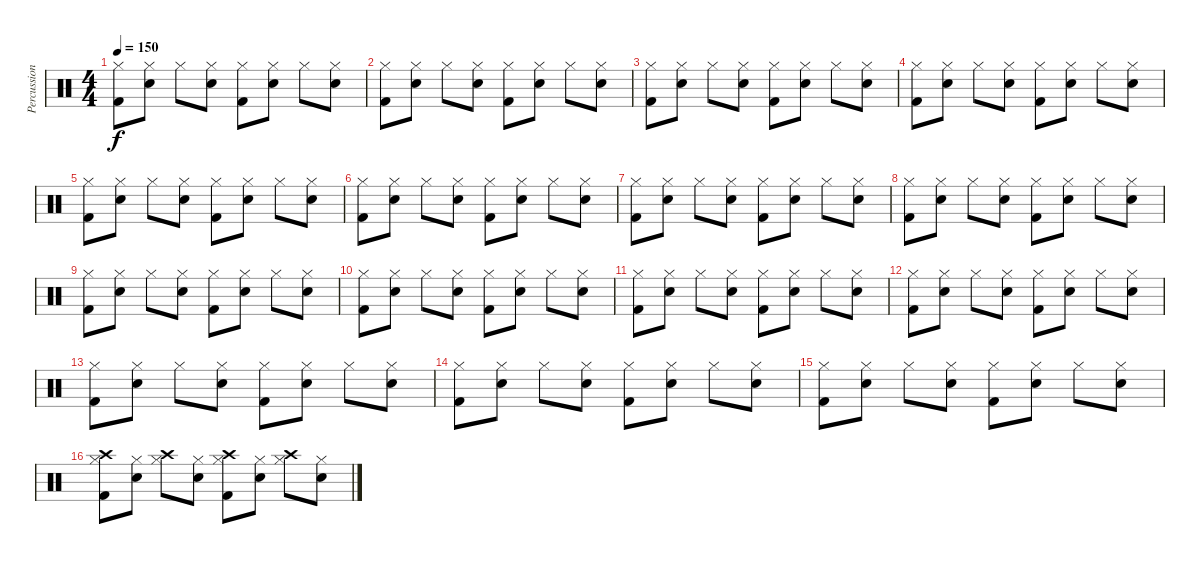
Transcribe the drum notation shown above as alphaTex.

\track ("Percussion" "Percussion") {instrument percussion}
\staff {score}
\articulation defaults
\ts (4 4)
\tempo 150
\clef neutral
\ks c
("Hi-Hat (closed)" "Kick (hit) 2").8{dy f} ("Hi-Hat (closed)" "Electric Snare (hit)").8 "Hi-Hat (closed)".8 ("Hi-Hat (closed)" "Electric Snare (hit)").8 ("Hi-Hat (closed)" "Kick (hit) 2").8 ("Hi-Hat (closed)" "Electric Snare (hit)").8 "Hi-Hat (closed)".8 ("Hi-Hat (closed)" "Electric Snare (hit)").8 |
("Hi-Hat (closed)" "Kick (hit) 2").8 ("Hi-Hat (closed)" "Electric Snare (hit)").8 "Hi-Hat (closed)".8 ("Hi-Hat (closed)" "Electric Snare (hit)").8 ("Hi-Hat (closed)" "Kick (hit) 2").8 ("Hi-Hat (closed)" "Electric Snare (hit)").8 "Hi-Hat (closed)".8 ("Hi-Hat (closed)" "Electric Snare (hit)").8 |
("Hi-Hat (closed)" "Kick (hit) 2").8 ("Hi-Hat (closed)" "Electric Snare (hit)").8 "Hi-Hat (closed)".8 ("Hi-Hat (closed)" "Electric Snare (hit)").8 ("Hi-Hat (closed)" "Kick (hit) 2").8 ("Hi-Hat (closed)" "Electric Snare (hit)").8 "Hi-Hat (closed)".8 ("Hi-Hat (closed)" "Electric Snare (hit)").8 |
("Hi-Hat (closed)" "Kick (hit) 2").8 ("Hi-Hat (closed)" "Electric Snare (hit)").8 "Hi-Hat (closed)".8 ("Hi-Hat (closed)" "Electric Snare (hit)").8 ("Hi-Hat (closed)" "Kick (hit) 2").8 ("Hi-Hat (closed)" "Electric Snare (hit)").8 "Hi-Hat (closed)".8 ("Hi-Hat (closed)" "Electric Snare (hit)").8 |
("Hi-Hat (closed)" "Kick (hit) 2").8 ("Hi-Hat (closed)" "Electric Snare (hit)").8 "Hi-Hat (closed)".8 ("Hi-Hat (closed)" "Electric Snare (hit)").8 ("Hi-Hat (closed)" "Kick (hit) 2").8 ("Hi-Hat (closed)" "Electric Snare (hit)").8 "Hi-Hat (closed)".8 ("Hi-Hat (closed)" "Electric Snare (hit)").8 |
("Hi-Hat (closed)" "Kick (hit) 2").8 ("Hi-Hat (closed)" "Electric Snare (hit)").8 "Hi-Hat (closed)".8 ("Hi-Hat (closed)" "Electric Snare (hit)").8 ("Hi-Hat (closed)" "Kick (hit) 2").8 ("Hi-Hat (closed)" "Electric Snare (hit)").8 "Hi-Hat (closed)".8 ("Hi-Hat (closed)" "Electric Snare (hit)").8 |
("Hi-Hat (closed)" "Kick (hit) 2").8 ("Hi-Hat (closed)" "Electric Snare (hit)").8 "Hi-Hat (closed)".8 ("Hi-Hat (closed)" "Electric Snare (hit)").8 ("Hi-Hat (closed)" "Kick (hit) 2").8 ("Hi-Hat (closed)" "Electric Snare (hit)").8 "Hi-Hat (closed)".8 ("Hi-Hat (closed)" "Electric Snare (hit)").8 |
("Hi-Hat (closed)" "Kick (hit) 2").8 ("Hi-Hat (closed)" "Electric Snare (hit)").8 "Hi-Hat (closed)".8 ("Hi-Hat (closed)" "Electric Snare (hit)").8 ("Hi-Hat (closed)" "Kick (hit) 2").8 ("Hi-Hat (closed)" "Electric Snare (hit)").8 "Hi-Hat (closed)".8 ("Hi-Hat (closed)" "Electric Snare (hit)").8 |
("Hi-Hat (closed)" "Kick (hit) 2").8 ("Hi-Hat (closed)" "Electric Snare (hit)").8 "Hi-Hat (closed)".8 ("Hi-Hat (closed)" "Electric Snare (hit)").8 ("Hi-Hat (closed)" "Kick (hit) 2").8 ("Hi-Hat (closed)" "Electric Snare (hit)").8 "Hi-Hat (closed)".8 ("Hi-Hat (closed)" "Electric Snare (hit)").8 |
("Hi-Hat (closed)" "Kick (hit) 2").8 ("Hi-Hat (closed)" "Electric Snare (hit)").8 "Hi-Hat (closed)".8 ("Hi-Hat (closed)" "Electric Snare (hit)").8 ("Hi-Hat (closed)" "Kick (hit) 2").8 ("Hi-Hat (closed)" "Electric Snare (hit)").8 "Hi-Hat (closed)".8 ("Hi-Hat (closed)" "Electric Snare (hit)").8 |
("Hi-Hat (closed)" "Kick (hit) 2").8 ("Hi-Hat (closed)" "Electric Snare (hit)").8 "Hi-Hat (closed)".8 ("Hi-Hat (closed)" "Electric Snare (hit)").8 ("Hi-Hat (closed)" "Kick (hit) 2").8 ("Hi-Hat (closed)" "Electric Snare (hit)").8 "Hi-Hat (closed)".8 ("Hi-Hat (closed)" "Electric Snare (hit)").8 |
("Hi-Hat (closed)" "Kick (hit) 2").8 ("Hi-Hat (closed)" "Electric Snare (hit)").8 "Hi-Hat (closed)".8 ("Hi-Hat (closed)" "Electric Snare (hit)").8 ("Hi-Hat (closed)" "Kick (hit) 2").8 ("Hi-Hat (closed)" "Electric Snare (hit)").8 "Hi-Hat (closed)".8 ("Hi-Hat (closed)" "Electric Snare (hit)").8 |
("Hi-Hat (closed)" "Kick (hit) 2").8 ("Hi-Hat (closed)" "Electric Snare (hit)").8 "Hi-Hat (closed)".8 ("Hi-Hat (closed)" "Electric Snare (hit)").8 ("Hi-Hat (closed)" "Kick (hit) 2").8 ("Hi-Hat (closed)" "Electric Snare (hit)").8 "Hi-Hat (closed)".8 ("Hi-Hat (closed)" "Electric Snare (hit)").8 |
("Hi-Hat (closed)" "Kick (hit) 2").8 ("Hi-Hat (closed)" "Electric Snare (hit)").8 "Hi-Hat (closed)".8 ("Hi-Hat (closed)" "Electric Snare (hit)").8 ("Hi-Hat (closed)" "Kick (hit) 2").8 ("Hi-Hat (closed)" "Electric Snare (hit)").8 "Hi-Hat (closed)".8 ("Hi-Hat (closed)" "Electric Snare (hit)").8 |
("Hi-Hat (closed)" "Kick (hit) 2").8 ("Hi-Hat (closed)" "Electric Snare (hit)").8 "Hi-Hat (closed)".8 ("Hi-Hat (closed)" "Electric Snare (hit)").8 ("Hi-Hat (closed)" "Kick (hit) 2").8 ("Hi-Hat (closed)" "Electric Snare (hit)").8 "Hi-Hat (closed)".8 ("Hi-Hat (closed)" "Electric Snare (hit)").8 |
("Hi-Hat (closed)" "Kick (hit) 2" "Crash high (hit)").8 ("Hi-Hat (closed)" "Electric Snare (hit)").8 ("Hi-Hat (closed)" "Crash high (hit)").8 ("Hi-Hat (closed)" "Electric Snare (hit)").8 ("Hi-Hat (closed)" "Kick (hit) 2" "Crash high (hit)").8 ("Hi-Hat (closed)" "Electric Snare (hit)").8 ("Hi-Hat (closed)" "Crash high (hit)").8 ("Hi-Hat (closed)" "Electric Snare (hit)").8
